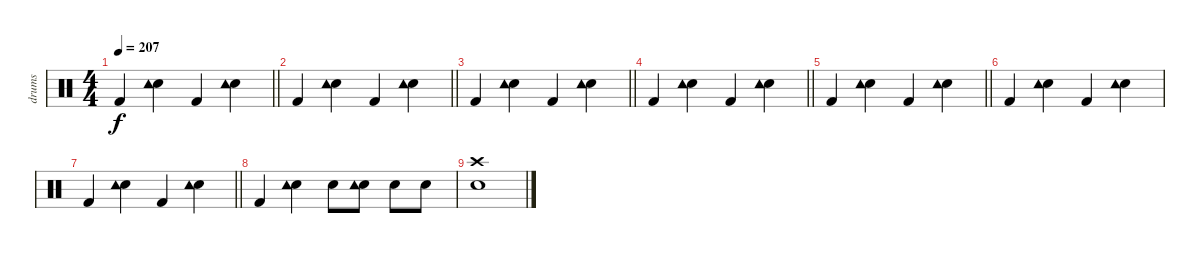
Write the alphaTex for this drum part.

\track ("drums" "drums") {instrument percussion}
\staff {score}
\articulation defaults
\ts (4 4)
\tempo 207
\clef neutral
\barLineRight lightlight
\ks c "Kick (hit) 2".4{dy f}
("Electric Snare (hit)" "Tambourine (hit)").4 "Kick (hit) 2".4 ("Electric Snare (hit)" "Tambourine (hit)").4 |
\barLineRight lightlight "Kick (hit) 2".4
("Electric Snare (hit)" "Tambourine (hit)").4 "Kick (hit) 2".4 ("Electric Snare (hit)" "Tambourine (hit)").4 |
\barLineRight lightlight "Kick (hit) 2".4
("Electric Snare (hit)" "Tambourine (hit)").4 "Kick (hit) 2".4 ("Electric Snare (hit)" "Tambourine (hit)").4 |
\barLineRight lightlight "Kick (hit) 2".4
("Electric Snare (hit)" "Tambourine (hit)").4 "Kick (hit) 2".4 ("Electric Snare (hit)" "Tambourine (hit)").4 |
\barLineRight lightlight "Kick (hit) 2".4
("Electric Snare (hit)" "Tambourine (hit)").4 "Kick (hit) 2".4 ("Electric Snare (hit)" "Tambourine (hit)").4 |
"Kick (hit) 2".4 ("Electric Snare (hit)" "Tambourine (hit)").4 "Kick (hit) 2".4 ("Electric Snare (hit)" "Tambourine (hit)").4 |
\barLineRight lightlight "Kick (hit) 2".4
("Electric Snare (hit)" "Tambourine (hit)").4 "Kick (hit) 2".4 ("Electric Snare (hit)" "Tambourine (hit)").4 |
"Kick (hit) 2".4 ("Electric Snare (hit)" "Tambourine (hit)").4 "Electric Snare (hit)".8 ("Electric Snare (hit)" "Tambourine (hit)").8 "Electric Snare (hit)".8 "Electric Snare (hit)".8 |
("Electric Snare (hit)" "Crash high (hit)").1
